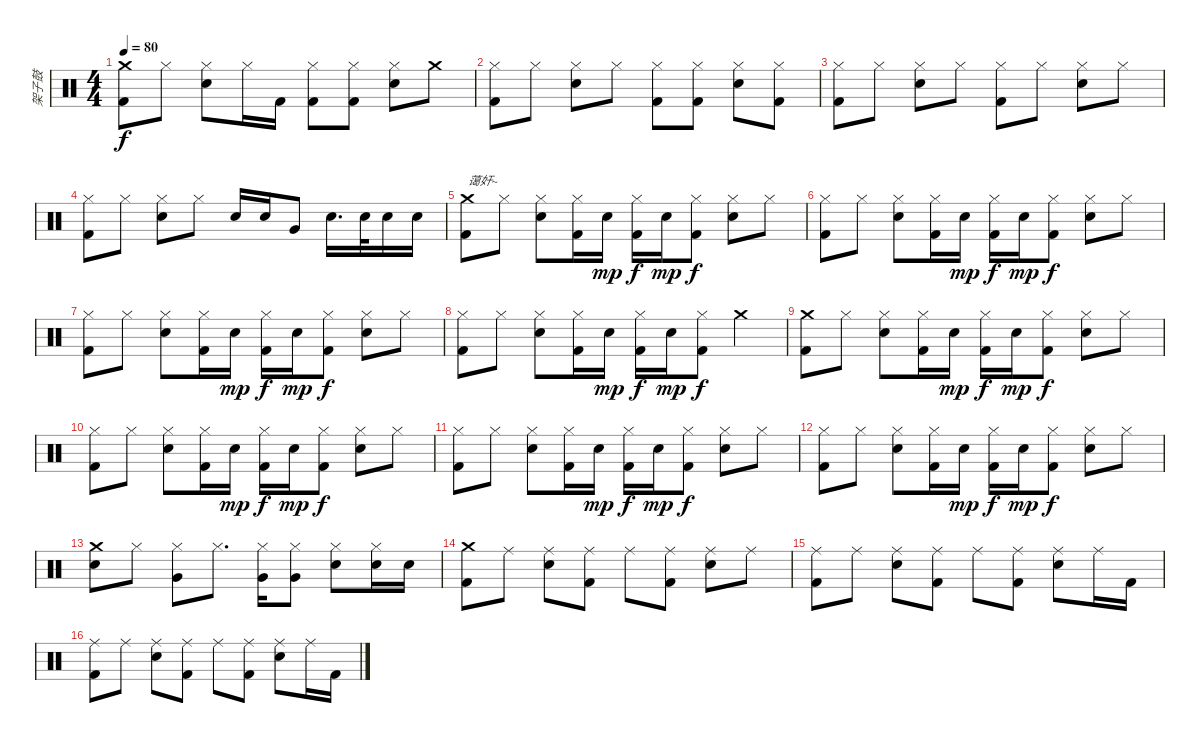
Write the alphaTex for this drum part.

\track ("架子鼓" "架子鼓") {instrument percussion}
\staff {score}
\articulation defaults
\ts (4 4)
\tempo 80
\clef neutral
\ks c
("Crash medium (hit)" "Kick (hit) 2").8{dy f} "Hi-Hat (closed)".8 ("Hi-Hat (closed)" "Snare (hit) 2").8 "Hi-Hat (closed)".16 "Kick (hit) 2".16 ("Hi-Hat (closed)" "Kick (hit) 2").8 ("Hi-Hat (closed)" "Kick (hit) 2").8 ("Hi-Hat (closed)" "Snare (hit) 2").8 "Crash medium (hit)".8 |
("Hi-Hat (closed)" "Kick (hit) 2").8 "Hi-Hat (closed)".8 ("Hi-Hat (closed)" "Snare (hit) 2").8 "Hi-Hat (closed)".8 ("Hi-Hat (closed)" "Kick (hit) 2").8 ("Hi-Hat (closed)" "Kick (hit) 2").8 ("Hi-Hat (closed)" "Snare (hit) 2").8 ("Hi-Hat (closed)" "Kick (hit) 2").8 |
("Hi-Hat (closed)" "Kick (hit) 2").8 "Hi-Hat (closed)".8 ("Hi-Hat (closed)" "Snare (hit) 2").8 "Hi-Hat (closed)".8 ("Hi-Hat (closed)" "Kick (hit) 2").8 "Hi-Hat (closed)".8 ("Hi-Hat (closed)" "Snare (hit) 2").8 "Hi-Hat (closed)".8 |
("Hi-Hat (closed)" "Kick (hit) 2").8 "Hi-Hat (closed)".8 ("Hi-Hat (closed)" "Snare (hit) 2").8 "Hi-Hat (closed)".8 "Snare (hit) 2".16 "Snare (hit) 2".16 "Very Low Tom (hit)".8 "Snare (hit) 2".16{d} "Snare (hit) 2".32 "Snare (hit) 2".16 "Snare (hit) 2".16 |
("Crash medium (hit)" "Kick (hit) 2").8{txt "蔼奸~"} "Hi-Hat (closed)".8 ("Hi-Hat (closed)" "Snare (hit) 2").8 ("Hi-Hat (closed)" "Kick (hit) 2").16 "Snare (hit) 2".16{dy mp} ("Hi-Hat (closed)" "Kick (hit) 2").16{dy f} "Snare (hit) 2".16{dy mp} ("Hi-Hat (closed)" "Kick (hit) 2").8{dy f} ("Hi-Hat (closed)" "Snare (hit) 2").8 "Hi-Hat (closed)".8 |
("Hi-Hat (closed)" "Kick (hit) 2").8 "Hi-Hat (closed)".8 ("Hi-Hat (closed)" "Snare (hit) 2").8 ("Hi-Hat (closed)" "Kick (hit) 2").16 "Snare (hit) 2".16{dy mp} ("Hi-Hat (closed)" "Kick (hit) 2").16{dy f} "Snare (hit) 2".16{dy mp} ("Hi-Hat (closed)" "Kick (hit) 2").8{dy f} ("Hi-Hat (closed)" "Snare (hit) 2").8 "Hi-Hat (closed)".8 |
("Hi-Hat (closed)" "Kick (hit) 2").8 "Hi-Hat (closed)".8 ("Hi-Hat (closed)" "Snare (hit) 2").8 ("Hi-Hat (closed)" "Kick (hit) 2").16 "Snare (hit) 2".16{dy mp} ("Hi-Hat (closed)" "Kick (hit) 2").16{dy f} "Snare (hit) 2".16{dy mp} ("Hi-Hat (closed)" "Kick (hit) 2").8{dy f} ("Hi-Hat (closed)" "Snare (hit) 2").8 "Hi-Hat (closed)".8 |
("Hi-Hat (closed)" "Kick (hit) 2").8 "Hi-Hat (closed)".8 ("Hi-Hat (closed)" "Snare (hit) 2").8 ("Hi-Hat (closed)" "Kick (hit) 2").16 "Snare (hit) 2".16{dy mp} ("Hi-Hat (closed)" "Kick (hit) 2").16{dy f} "Snare (hit) 2".16{dy mp} ("Hi-Hat (closed)" "Kick (hit) 2").8{dy f} "Crash medium (hit)".4 |
("Crash medium (hit)" "Kick (hit) 2").8 "Hi-Hat (closed)".8 ("Hi-Hat (closed)" "Snare (hit) 2").8 ("Hi-Hat (closed)" "Kick (hit) 2").16 "Snare (hit) 2".16{dy mp} ("Hi-Hat (closed)" "Kick (hit) 2").16{dy f} "Snare (hit) 2".16{dy mp} ("Hi-Hat (closed)" "Kick (hit) 2").8{dy f} ("Hi-Hat (closed)" "Snare (hit) 2").8 "Hi-Hat (closed)".8 |
("Hi-Hat (closed)" "Kick (hit) 2").8 "Hi-Hat (closed)".8 ("Hi-Hat (closed)" "Snare (hit) 2").8 ("Hi-Hat (closed)" "Kick (hit) 2").16 "Snare (hit) 2".16{dy mp} ("Hi-Hat (closed)" "Kick (hit) 2").16{dy f} "Snare (hit) 2".16{dy mp} ("Hi-Hat (closed)" "Kick (hit) 2").8{dy f} ("Hi-Hat (closed)" "Snare (hit) 2").8 "Hi-Hat (closed)".8 |
("Hi-Hat (closed)" "Kick (hit) 2").8 "Hi-Hat (closed)".8 ("Hi-Hat (closed)" "Snare (hit) 2").8 ("Hi-Hat (closed)" "Kick (hit) 2").16 "Snare (hit) 2".16{dy mp} ("Hi-Hat (closed)" "Kick (hit) 2").16{dy f} "Snare (hit) 2".16{dy mp} ("Hi-Hat (closed)" "Kick (hit) 2").8{dy f} ("Hi-Hat (closed)" "Snare (hit) 2").8 "Hi-Hat (closed)".8 |
("Hi-Hat (closed)" "Kick (hit) 2").8 "Hi-Hat (closed)".8 ("Hi-Hat (closed)" "Snare (hit) 2").8 ("Hi-Hat (closed)" "Kick (hit) 2").16 "Snare (hit) 2".16{dy mp} ("Hi-Hat (closed)" "Kick (hit) 2").16{dy f} "Snare (hit) 2".16{dy mp} ("Hi-Hat (closed)" "Kick (hit) 2").8{dy f} ("Hi-Hat (closed)" "Snare (hit) 2").8 "Hi-Hat (closed)".8 |
("Crash medium (hit)" "Snare (hit) 2").8 "Hi-Hat (closed)".8 ("Hi-Hat (closed)" "Very Low Tom (hit)").8 "Hi-Hat (closed)".8{d} ("Hi-Hat (closed)" "Very Low Tom (hit)").16 ("Hi-Hat (closed)" "Very Low Tom (hit)").8 ("Hi-Hat (closed)" "Snare (hit) 2").8 ("Hi-Hat (closed)" "Snare (hit) 2").16 "Snare (hit) 2".16 |
("Crash medium (hit)" "Kick (hit) 2").8 "Ride (middle)".8 ("Ride (middle)" "Snare (hit) 2").8 ("Ride (middle)" "Kick (hit) 2").8 "Ride (middle)".8 ("Ride (middle)" "Kick (hit) 2").8 ("Ride (middle)" "Snare (hit) 2").8 "Ride (middle)".8 |
("Ride (middle)" "Kick (hit) 2").8 "Ride (middle)".8 ("Ride (middle)" "Snare (hit) 2").8 ("Ride (middle)" "Kick (hit) 2").8 "Ride (middle)".8 ("Ride (middle)" "Kick (hit) 2").8 ("Ride (middle)" "Snare (hit) 2").8 "Ride (middle)".16 "Kick (hit) 2".16 |
("Ride (middle)" "Kick (hit) 2").8 "Ride (middle)".8 ("Ride (middle)" "Snare (hit) 2").8 ("Ride (middle)" "Kick (hit) 2").8 "Ride (middle)".8 ("Ride (middle)" "Kick (hit) 2").8 ("Ride (middle)" "Snare (hit) 2").8 "Ride (middle)".16 "Kick (hit) 2".16
